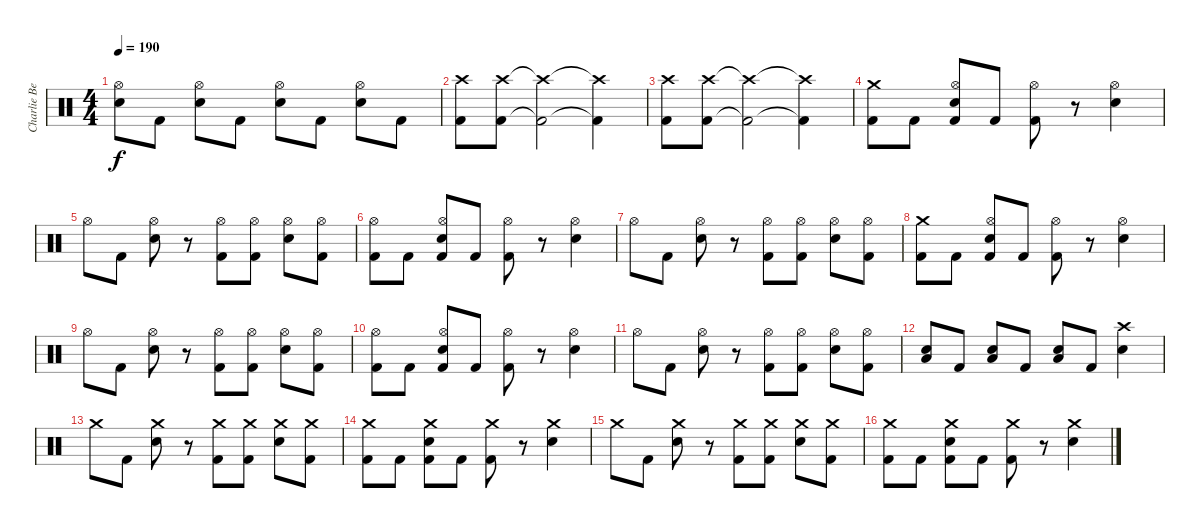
\track ("Charlie Benante" "Charlie Be") {instrument percussion}
\staff {score}
\articulation defaults
\ts (4 4)
\tempo 190
\clef neutral
\ks c
("Snare (hit) 2" "Hi-Hat (open)").8{dy f} "Kick (hit) 2".8 ("Snare (hit) 2" "Hi-Hat (open)").8 "Kick (hit) 2".8 ("Snare (hit) 2" "Hi-Hat (open)").8 "Kick (hit) 2".8 ("Snare (hit) 2" "Hi-Hat (open)").8 "Kick (hit) 2".8 |
("Crash high (hit)" "Kick (hit) 2").8 ("Crash high (hit)" "Kick (hit) 2").8 ("Crash high (hit)"{t} "Kick (hit) 2"{t}).2 ("Crash high (hit)"{t} "Kick (hit) 2"{t}).4 |
("Crash high (hit)" "Kick (hit) 2").8 ("Crash high (hit)" "Kick (hit) 2").8 ("Crash high (hit)"{t} "Kick (hit) 2"{t}).2 ("Crash high (hit)"{t} "Kick (hit) 2"{t}).4 |
("Crash medium (hit)" "Kick (hit) 2").8 "Kick (hit) 2".8 ("Snare (hit) 2" "Hi-Hat (open)" "Kick (hit) 2").8 "Kick (hit) 2".8 ("Hi-Hat (open)" "Kick (hit) 2").8 r.8 ("Snare (hit) 2" "Hi-Hat (open)").4 |
"Hi-Hat (open)".8 "Kick (hit) 2".8 ("Snare (hit) 2" "Hi-Hat (open)").8 r.8 ("Hi-Hat (open)" "Kick (hit) 2").8 ("Hi-Hat (open)" "Kick (hit) 2").8 ("Snare (hit) 2" "Hi-Hat (open)").8 ("Hi-Hat (open)" "Kick (hit) 2").8 |
("Hi-Hat (open)" "Kick (hit) 2").8 "Kick (hit) 2".8 ("Snare (hit) 2" "Hi-Hat (open)" "Kick (hit) 2").8 "Kick (hit) 2".8 ("Hi-Hat (open)" "Kick (hit) 2").8 r.8 ("Snare (hit) 2" "Hi-Hat (open)").4 |
"Hi-Hat (open)".8 "Kick (hit) 2".8 ("Snare (hit) 2" "Hi-Hat (open)").8 r.8 ("Hi-Hat (open)" "Kick (hit) 2").8 ("Hi-Hat (open)" "Kick (hit) 2").8 ("Snare (hit) 2" "Hi-Hat (open)").8 ("Hi-Hat (open)" "Kick (hit) 2").8 |
("Crash medium (hit)" "Kick (hit) 2").8 "Kick (hit) 2".8 ("Snare (hit) 2" "Hi-Hat (open)" "Kick (hit) 2").8 "Kick (hit) 2".8 ("Hi-Hat (open)" "Kick (hit) 2").8 r.8 ("Snare (hit) 2" "Hi-Hat (open)").4 |
"Hi-Hat (open)".8 "Kick (hit) 2".8 ("Snare (hit) 2" "Hi-Hat (open)").8 r.8 ("Hi-Hat (open)" "Kick (hit) 2").8 ("Hi-Hat (open)" "Kick (hit) 2").8 ("Snare (hit) 2" "Hi-Hat (open)").8 ("Hi-Hat (open)" "Kick (hit) 2").8 |
("Hi-Hat (open)" "Kick (hit) 2").8 "Kick (hit) 2".8 ("Snare (hit) 2" "Hi-Hat (open)" "Kick (hit) 2").8 "Kick (hit) 2".8 ("Hi-Hat (open)" "Kick (hit) 2").8 r.8 ("Snare (hit) 2" "Hi-Hat (open)").4 |
"Hi-Hat (open)".8 "Kick (hit) 2".8 ("Snare (hit) 2" "Hi-Hat (open)").8 r.8 ("Hi-Hat (open)" "Kick (hit) 2").8 ("Hi-Hat (open)" "Kick (hit) 2").8 ("Snare (hit) 2" "Hi-Hat (open)").8 ("Hi-Hat (open)" "Kick (hit) 2").8 |
("Low Tom (hit)" "Snare (hit) 2").8 "Kick (hit) 2".8 ("Low Tom (hit)" "Snare (hit) 2").8 "Kick (hit) 2".8 ("Low Tom (hit)" "Snare (hit) 2").8 "Kick (hit) 2".8 ("Snare (hit) 2" "Crash high (hit)").4 |
"Crash medium (hit)".8 "Kick (hit) 2".8 ("Snare (hit) 2" "Crash medium (hit)").8 r.8 ("Crash medium (hit)" "Kick (hit) 2").8 ("Crash medium (hit)" "Kick (hit) 2").8 ("Snare (hit) 2" "Crash medium (hit)").8 ("Crash medium (hit)" "Kick (hit) 2").8 |
("Crash medium (hit)" "Kick (hit) 2").8 "Kick (hit) 2".8 ("Snare (hit) 2" "Crash medium (hit)" "Kick (hit) 2").8 "Kick (hit) 2".8 ("Crash medium (hit)" "Kick (hit) 2").8 r.8 ("Snare (hit) 2" "Crash medium (hit)").4 |
"Crash medium (hit)".8 "Kick (hit) 2".8 ("Snare (hit) 2" "Crash medium (hit)").8 r.8 ("Crash medium (hit)" "Kick (hit) 2").8 ("Crash medium (hit)" "Kick (hit) 2").8 ("Snare (hit) 2" "Crash medium (hit)").8 ("Crash medium (hit)" "Kick (hit) 2").8 |
("Crash medium (hit)" "Kick (hit) 2").8 "Kick (hit) 2".8 ("Snare (hit) 2" "Crash medium (hit)" "Kick (hit) 2").8 "Kick (hit) 2".8 ("Crash medium (hit)" "Kick (hit) 2").8 r.8 ("Snare (hit) 2" "Crash medium (hit)").4
